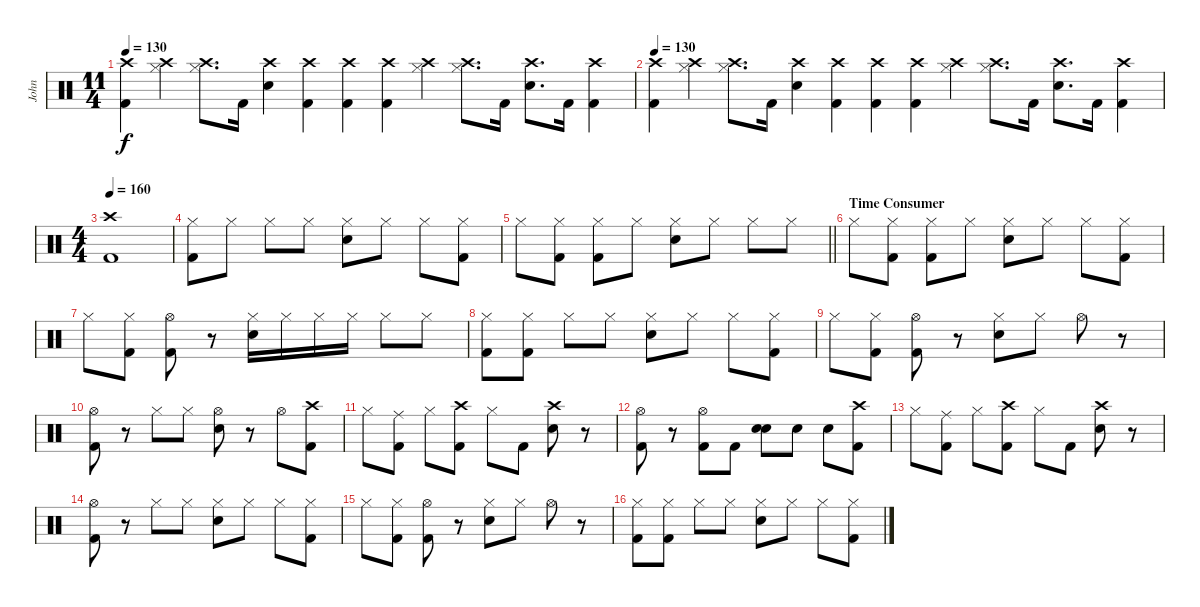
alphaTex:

\track ("John" "John") {instrument percussion}
\staff {score}
\articulation defaults
\ts (11 4)
\tempo 130
\clef neutral
\ks c
("Crash high (hit)" "Kick (hit) 2").4{dy f} ("Crash high (hit)" "Hi-Hat (closed)").4 ("Crash high (hit)" "Hi-Hat (closed)").8{d} "Kick (hit) 2".16 ("Crash high (hit)" "Snare (hit) 2").4 ("Crash high (hit)" "Kick (hit) 2").4 ("Crash high (hit)" "Kick (hit) 2").4 ("Crash high (hit)" "Kick (hit) 2").4 ("Crash high (hit)" "Hi-Hat (closed)").4 ("Crash high (hit)" "Hi-Hat (closed)").8{d} "Kick (hit) 2".16 ("Crash high (hit)" "Snare (hit) 2").8{d} "Kick (hit) 2".16 ("Crash high (hit)" "Kick (hit) 2").4 |
\tempo 130
("Crash high (hit)" "Kick (hit) 2").4 ("Crash high (hit)" "Hi-Hat (closed)").4 ("Crash high (hit)" "Hi-Hat (closed)").8{d} "Kick (hit) 2".16 ("Crash high (hit)" "Snare (hit) 2").4 ("Crash high (hit)" "Kick (hit) 2").4 ("Crash high (hit)" "Kick (hit) 2").4 ("Crash high (hit)" "Kick (hit) 2").4 ("Crash high (hit)" "Hi-Hat (closed)").4 ("Crash high (hit)" "Hi-Hat (closed)").8{d} "Kick (hit) 2".16 ("Crash high (hit)" "Snare (hit) 2").8{d} "Kick (hit) 2".16 ("Crash high (hit)" "Kick (hit) 2").4 |
\ts (4 4)
\tempo 160
("Crash high (hit)" "Kick (hit) 2").1 |
("Hi-Hat (closed)" "Kick (hit) 2").8 "Hi-Hat (closed)".8 "Hi-Hat (closed)".8 "Hi-Hat (closed)".8 ("Hi-Hat (closed)" "Snare (hit) 2").8 "Hi-Hat (closed)".8 "Hi-Hat (closed)".8 ("Hi-Hat (closed)" "Kick (hit) 2").8 |
\barLineRight lightlight "Hi-Hat (closed)".8
("Hi-Hat (closed)" "Kick (hit) 2").8 ("Hi-Hat (closed)" "Kick (hit) 2").8 "Hi-Hat (closed)".8 ("Hi-Hat (closed)" "Snare (hit) 2").8 "Hi-Hat (closed)".8 "Hi-Hat (closed)".8 "Hi-Hat (closed)".8 |
\section ("" "Time Consumer")
"Hi-Hat (closed)".8 ("Hi-Hat (closed)" "Kick (hit) 2").8 ("Hi-Hat (closed)" "Kick (hit) 2").8 "Hi-Hat (closed)".8 ("Hi-Hat (closed)" "Snare (hit) 2").8 "Hi-Hat (closed)".8 "Hi-Hat (closed)".8 ("Hi-Hat (closed)" "Kick (hit) 2").8 |
"Hi-Hat (closed)".8 ("Hi-Hat (closed)" "Kick (hit) 2").8 ("Hi-Hat (open)" "Kick (hit) 2").8 r.8 ("Hi-Hat (closed)" "Snare (hit) 2").16 "Hi-Hat (closed)".16 "Hi-Hat (closed)".16 "Hi-Hat (closed)".16 "Hi-Hat (closed)".8 "Hi-Hat (closed)".8 |
("Hi-Hat (closed)" "Kick (hit) 2").8 ("Hi-Hat (closed)" "Kick (hit) 2").8 "Hi-Hat (closed)".8 "Hi-Hat (closed)".8 ("Hi-Hat (closed)" "Snare (hit) 2").8 "Hi-Hat (closed)".8 "Hi-Hat (closed)".8 ("Hi-Hat (closed)" "Kick (hit) 2").8 |
"Hi-Hat (closed)".8 ("Hi-Hat (closed)" "Kick (hit) 2").8 ("Hi-Hat (open)" "Kick (hit) 2").8 r.8 ("Hi-Hat (closed)" "Snare (hit) 2").8 "Hi-Hat (closed)".8 "Hi-Hat (open)".8 r.8 |
("Hi-Hat (open)" "Kick (hit) 2").8 r.8 "Hi-Hat (closed)".8 "Hi-Hat (closed)".8 ("Hi-Hat (open)" "Snare (hit) 2").8 r.8 "Hi-Hat (open)".8 ("Crash high (hit)" "Kick (hit) 2").8 |
"Hi-Hat (closed)".8 ("Ride (middle)" "Kick (hit) 2").8 "Hi-Hat (closed)".8 ("Crash high (hit)" "Kick (hit) 2").8 "Hi-Hat (closed)".8 "Kick (hit) 2".8 ("Crash high (hit)" "Snare (hit) 2").8 r.8 |
("Hi-Hat (open)" "Kick (hit) 2").8 r.8 ("Hi-Hat (open)" "Kick (hit) 2").8 "Kick (hit) 2".8 ("Snare (hit) 2" "Snare (hit) 2").8 "Snare (hit) 2".8 "Snare (hit) 2".8 ("Crash high (hit)" "Kick (hit) 2").8 |
"Hi-Hat (closed)".8 ("Ride (middle)" "Kick (hit) 2").8 "Hi-Hat (closed)".8 ("Crash high (hit)" "Kick (hit) 2").8 "Hi-Hat (closed)".8 "Kick (hit) 2".8 ("Crash high (hit)" "Snare (hit) 2").8 r.8 |
("Hi-Hat (open)" "Kick (hit) 2").8 r.8 "Hi-Hat (closed)".8 "Hi-Hat (closed)".8 ("Hi-Hat (closed)" "Snare (hit) 2").8 "Hi-Hat (closed)".8 "Hi-Hat (closed)".8 ("Hi-Hat (closed)" "Kick (hit) 2").8 |
"Hi-Hat (closed)".8 ("Hi-Hat (closed)" "Kick (hit) 2").8 ("Hi-Hat (open)" "Kick (hit) 2").8 r.8 ("Hi-Hat (closed)" "Snare (hit) 2").8 "Hi-Hat (closed)".8 "Hi-Hat (open)".8 r.8 |
("Hi-Hat (closed)" "Kick (hit) 2").8 ("Hi-Hat (closed)" "Kick (hit) 2").8 "Hi-Hat (closed)".8 "Hi-Hat (closed)".8 ("Hi-Hat (closed)" "Snare (hit) 2").8 "Hi-Hat (closed)".8 "Hi-Hat (closed)".8 ("Hi-Hat (closed)" "Kick (hit) 2").8
